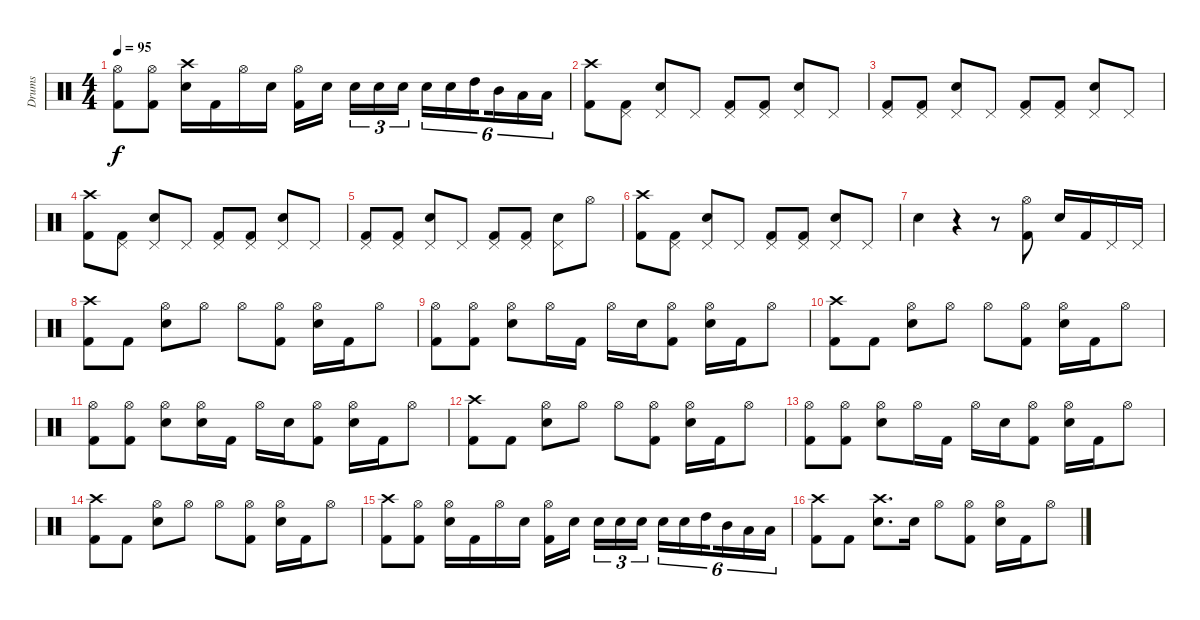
\track ("Drums" "Drums") {instrument percussion}
\staff {score}
\articulation defaults
\ts (4 4)
\tempo 95
\clef neutral
\ks c
("Hi-Hat (open)" "Kick (hit) 2").8{dy f} ("Hi-Hat (open)" "Kick (hit) 2").8 ("Crash high (hit)" "Electric Snare (hit)").16 "Kick (hit) 2".16 "Hi-Hat (open)".16 "Electric Snare (hit)".16 ("Hi-Hat (open)" "Kick (hit) 2").16 "Electric Snare (hit)".16{beam splitsecondary} "Electric Snare (hit)".16{tu (3 2)} "Electric Snare (hit)".16{tu (3 2)} "Electric Snare (hit)".16{tu (3 2)} "Electric Snare (hit)".16{tu (6 4)} "Electric Snare (hit)".16{tu (6 4)} "High Tom (hit)".16{tu (6 4) beam splitsecondary} "Mid Tom (hit)".16{tu (6 4)} "Low Tom (hit)".16{tu (6 4)} "Low Tom (hit)".16{tu (6 4)} |
("Crash high (hit)" "Kick (hit) 2").8 ("Pedal Hi-Hat (hit)" "Kick (hit) 2").8 ("Pedal Hi-Hat (hit)" "Electric Snare (hit)").8 "Pedal Hi-Hat (hit)".8 ("Pedal Hi-Hat (hit)" "Kick (hit) 2").8 ("Pedal Hi-Hat (hit)" "Kick (hit) 2").8 ("Pedal Hi-Hat (hit)" "Electric Snare (hit)").8 "Pedal Hi-Hat (hit)".8 |
("Pedal Hi-Hat (hit)" "Kick (hit) 2").8 ("Pedal Hi-Hat (hit)" "Kick (hit) 2").8 ("Pedal Hi-Hat (hit)" "Electric Snare (hit)").8 "Pedal Hi-Hat (hit)".8 ("Pedal Hi-Hat (hit)" "Kick (hit) 2").8 ("Pedal Hi-Hat (hit)" "Kick (hit) 2").8 ("Pedal Hi-Hat (hit)" "Electric Snare (hit)").8 "Pedal Hi-Hat (hit)".8 |
("Crash high (hit)" "Kick (hit) 2").8 ("Pedal Hi-Hat (hit)" "Kick (hit) 2").8 ("Pedal Hi-Hat (hit)" "Electric Snare (hit)").8 "Pedal Hi-Hat (hit)".8 ("Pedal Hi-Hat (hit)" "Kick (hit) 2").8 ("Pedal Hi-Hat (hit)" "Kick (hit) 2").8 ("Pedal Hi-Hat (hit)" "Electric Snare (hit)").8 "Pedal Hi-Hat (hit)".8 |
("Pedal Hi-Hat (hit)" "Kick (hit) 2").8 ("Pedal Hi-Hat (hit)" "Kick (hit) 2").8 ("Pedal Hi-Hat (hit)" "Electric Snare (hit)").8 "Pedal Hi-Hat (hit)".8 ("Pedal Hi-Hat (hit)" "Kick (hit) 2").8 ("Pedal Hi-Hat (hit)" "Kick (hit) 2").8 ("Pedal Hi-Hat (hit)" "Electric Snare (hit)").8 "Hi-Hat (open)".8 |
("Crash high (hit)" "Kick (hit) 2").8 ("Pedal Hi-Hat (hit)" "Kick (hit) 2").8 ("Pedal Hi-Hat (hit)" "Electric Snare (hit)").8 "Pedal Hi-Hat (hit)".8 ("Pedal Hi-Hat (hit)" "Kick (hit) 2").8 ("Pedal Hi-Hat (hit)" "Kick (hit) 2").8 ("Pedal Hi-Hat (hit)" "Electric Snare (hit)").8 "Pedal Hi-Hat (hit)".8 |
"Electric Snare (hit)".4 r.4 r.8 ("Hi-Hat (open)" "Kick (hit) 2").8 "Electric Snare (hit)".16 "Kick (hit) 2".16 "Pedal Hi-Hat (hit)".16 "Pedal Hi-Hat (hit)".16 |
("Crash high (hit)" "Kick (hit) 2").8 "Kick (hit) 2".8 ("Hi-Hat (open)" "Electric Snare (hit)").8 "Hi-Hat (open)".8 "Hi-Hat (open)".8 ("Hi-Hat (open)" "Kick (hit) 2").8 ("Hi-Hat (open)" "Electric Snare (hit)").16 "Kick (hit) 2".16 "Hi-Hat (open)".8 |
("Hi-Hat (open)" "Kick (hit) 2").8 ("Hi-Hat (open)" "Kick (hit) 2").8 ("Hi-Hat (open)" "Electric Snare (hit)").8 "Hi-Hat (open)".16 "Kick (hit) 2".16 "Hi-Hat (open)".16 "Electric Snare (hit)".16 ("Hi-Hat (open)" "Kick (hit) 2").8 ("Hi-Hat (open)" "Electric Snare (hit)").16 "Kick (hit) 2".16 "Hi-Hat (open)".8 |
("Crash high (hit)" "Kick (hit) 2").8 "Kick (hit) 2".8 ("Hi-Hat (open)" "Electric Snare (hit)").8 "Hi-Hat (open)".8 "Hi-Hat (open)".8 ("Hi-Hat (open)" "Kick (hit) 2").8 ("Hi-Hat (open)" "Electric Snare (hit)").16 "Kick (hit) 2".16 "Hi-Hat (open)".8 |
("Hi-Hat (open)" "Kick (hit) 2").8 ("Hi-Hat (open)" "Kick (hit) 2").8 ("Hi-Hat (open)" "Electric Snare (hit)").8 ("Hi-Hat (open)" "Electric Snare (hit)").16 "Kick (hit) 2".16 "Hi-Hat (open)".16 "Electric Snare (hit)".16 ("Hi-Hat (open)" "Kick (hit) 2").8 ("Hi-Hat (open)" "Electric Snare (hit)").16 "Kick (hit) 2".16 "Hi-Hat (open)".8 |
("Crash high (hit)" "Kick (hit) 2").8 "Kick (hit) 2".8 ("Hi-Hat (open)" "Electric Snare (hit)").8 "Hi-Hat (open)".8 "Hi-Hat (open)".8 ("Hi-Hat (open)" "Kick (hit) 2").8 ("Hi-Hat (open)" "Electric Snare (hit)").16 "Kick (hit) 2".16 "Hi-Hat (open)".8 |
("Hi-Hat (open)" "Kick (hit) 2").8 ("Hi-Hat (open)" "Kick (hit) 2").8 ("Hi-Hat (open)" "Electric Snare (hit)").8 "Hi-Hat (open)".16 "Kick (hit) 2".16 "Hi-Hat (open)".16 "Electric Snare (hit)".16 ("Hi-Hat (open)" "Kick (hit) 2").8 ("Hi-Hat (open)" "Electric Snare (hit)").16 "Kick (hit) 2".16 "Hi-Hat (open)".8 |
("Crash high (hit)" "Kick (hit) 2").8 "Kick (hit) 2".8 ("Hi-Hat (open)" "Electric Snare (hit)").8 "Hi-Hat (open)".8 "Hi-Hat (open)".8 ("Hi-Hat (open)" "Kick (hit) 2").8 ("Hi-Hat (open)" "Electric Snare (hit)").16 "Kick (hit) 2".16 "Hi-Hat (open)".8 |
("Crash high (hit)" "Kick (hit) 2").8 ("Hi-Hat (open)" "Kick (hit) 2").8 ("Hi-Hat (open)" "Electric Snare (hit)").16 "Kick (hit) 2".16 "Hi-Hat (open)".16 "Electric Snare (hit)".16 ("Hi-Hat (open)" "Kick (hit) 2").16 "Electric Snare (hit)".16{beam splitsecondary} "Electric Snare (hit)".16{tu (3 2)} "Electric Snare (hit)".16{tu (3 2)} "Electric Snare (hit)".16{tu (3 2)} "Electric Snare (hit)".16{tu (6 4)} "Electric Snare (hit)".16{tu (6 4)} "High Tom (hit)".16{tu (6 4) beam splitsecondary} "Mid Tom (hit)".16{tu (6 4)} "Low Tom (hit)".16{tu (6 4)} "Low Tom (hit)".16{tu (6 4)} |
("Crash high (hit)" "Kick (hit) 2").8 "Kick (hit) 2".8 ("Crash high (hit)" "Electric Snare (hit)").8{d} "Electric Snare (hit)".16 "Hi-Hat (open)".8 ("Hi-Hat (open)" "Kick (hit) 2").8 ("Hi-Hat (open)" "Electric Snare (hit)").16 "Kick (hit) 2".16 "Hi-Hat (open)".8
